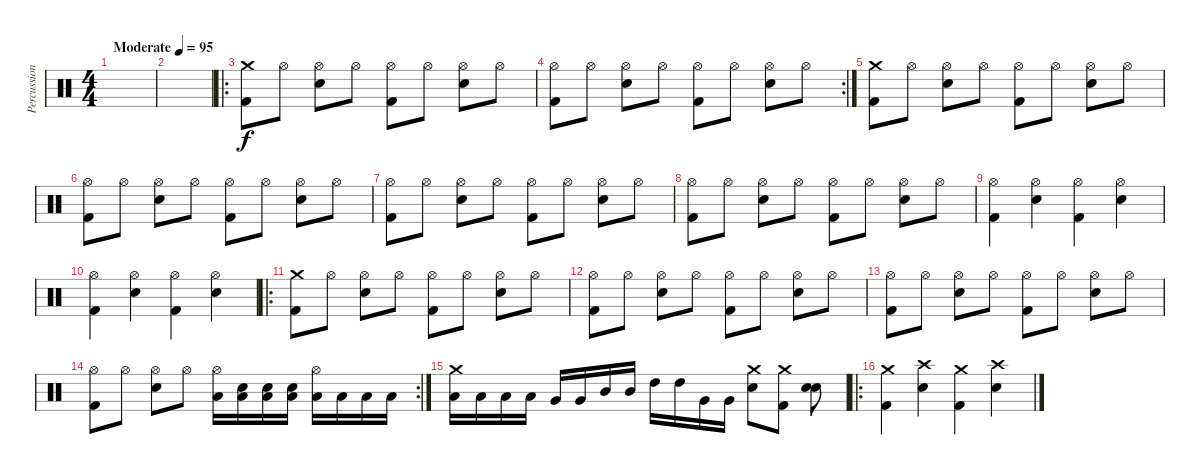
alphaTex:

\track ("Percussion" "Percussion") {instrument percussion}
\staff {score}
\articulation defaults
\ts (4 4)
\tempo (95 "Moderate")
\clef neutral
\ks c
|
|
\ro
("Crash medium (hit)" "Kick (hit) 2").8 "Hi-Hat (open)".8 ("Hi-Hat (open)" "Electric Snare (hit)").8 "Hi-Hat (open)".8 ("Hi-Hat (open)" "Kick (hit) 2").8 "Hi-Hat (open)".8 ("Hi-Hat (open)" "Electric Snare (hit)").8 "Hi-Hat (open)".8 |
\rc 2
("Hi-Hat (open)" "Kick (hit) 2").8 "Hi-Hat (open)".8 ("Hi-Hat (open)" "Electric Snare (hit)").8 "Hi-Hat (open)".8 ("Hi-Hat (open)" "Kick (hit) 2").8 "Hi-Hat (open)".8 ("Hi-Hat (open)" "Electric Snare (hit)").8 "Hi-Hat (open)".8 |
("Crash medium (hit)" "Kick (hit) 2").8 "Hi-Hat (open)".8 ("Hi-Hat (open)" "Electric Snare (hit)").8 "Hi-Hat (open)".8 ("Hi-Hat (open)" "Kick (hit) 2").8 "Hi-Hat (open)".8 ("Hi-Hat (open)" "Electric Snare (hit)").8 "Hi-Hat (open)".8 |
("Hi-Hat (open)" "Kick (hit) 2").8 "Hi-Hat (open)".8 ("Hi-Hat (open)" "Electric Snare (hit)").8 "Hi-Hat (open)".8 ("Hi-Hat (open)" "Kick (hit) 2").8 "Hi-Hat (open)".8 ("Hi-Hat (open)" "Electric Snare (hit)").8 "Hi-Hat (open)".8 |
("Hi-Hat (open)" "Kick (hit) 2").8 "Hi-Hat (open)".8 ("Hi-Hat (open)" "Electric Snare (hit)").8 "Hi-Hat (open)".8 ("Hi-Hat (open)" "Kick (hit) 2").8 "Hi-Hat (open)".8 ("Hi-Hat (open)" "Electric Snare (hit)").8 "Hi-Hat (open)".8 |
("Hi-Hat (open)" "Kick (hit) 2").8 "Hi-Hat (open)".8 ("Hi-Hat (open)" "Electric Snare (hit)").8 "Hi-Hat (open)".8 ("Hi-Hat (open)" "Kick (hit) 2").8 "Hi-Hat (open)".8 ("Hi-Hat (open)" "Electric Snare (hit)").8 "Hi-Hat (open)".8 |
("Hi-Hat (open)" "Kick (hit) 2").4 ("Hi-Hat (open)" "Electric Snare (hit)").4 ("Hi-Hat (open)" "Kick (hit) 2").4 ("Hi-Hat (open)" "Electric Snare (hit)").4 |
("Hi-Hat (open)" "Kick (hit) 2").4 ("Hi-Hat (open)" "Electric Snare (hit)").4 ("Hi-Hat (open)" "Kick (hit) 2").4 ("Hi-Hat (open)" "Electric Snare (hit)").4 |
\ro
("Crash medium (hit)" "Kick (hit) 2").8 "Hi-Hat (open)".8 ("Hi-Hat (open)" "Electric Snare (hit)").8 "Hi-Hat (open)".8 ("Hi-Hat (open)" "Kick (hit) 2").8 "Hi-Hat (open)".8 ("Hi-Hat (open)" "Electric Snare (hit)").8 "Hi-Hat (open)".8 |
("Hi-Hat (open)" "Kick (hit) 2").8 "Hi-Hat (open)".8 ("Hi-Hat (open)" "Electric Snare (hit)").8 "Hi-Hat (open)".8 ("Hi-Hat (open)" "Kick (hit) 2").8 "Hi-Hat (open)".8 ("Hi-Hat (open)" "Electric Snare (hit)").8 "Hi-Hat (open)".8 |
("Hi-Hat (open)" "Kick (hit) 2").8 "Hi-Hat (open)".8 ("Hi-Hat (open)" "Electric Snare (hit)").8 "Hi-Hat (open)".8 ("Hi-Hat (open)" "Kick (hit) 2").8 "Hi-Hat (open)".8 ("Hi-Hat (open)" "Electric Snare (hit)").8 "Hi-Hat (open)".8 |
\rc 2
("Hi-Hat (open)" "Kick (hit) 2").8 "Hi-Hat (open)".8 ("Hi-Hat (open)" "Electric Snare (hit)").8 "Hi-Hat (open)".8 ("Hi-Hat (open)" "Low Tom (hit)").16 ("Snare (hit)" "Low Tom (hit)").16 ("Snare (hit)" "Low Tom (hit)").16 ("Snare (hit)" "Low Tom (hit)").16 ("Hi-Hat (open)" "Low Floor Tom (hit)").16 "Low Floor Tom (hit)".16 "Low Floor Tom (hit)".16 "Low Floor Tom (hit)".16 |
("Crash medium (hit)" "Low Tom (hit)").16 "Low Tom (hit)".16 "Low Floor Tom (hit)".16 "Low Floor Tom (hit)".16 "Very Low Tom (hit)".16 "Very Low Tom (hit)".16 "Mid Tom (hit)".16 "Mid Tom (hit)".16 "High Tom (hit)".16 "High Tom (hit)".16 "Very Low Tom (hit)".16 "Very Low Tom (hit)".16 ("Crash medium (hit)" "Electric Snare (hit)").8 ("Crash medium (hit)" "Kick (hit) 2").8 ("Snare (hit)" "Snare (hit)").8 |
\ro
("Crash medium (hit)" "Kick (hit) 2").4 ("Crash high (hit)" "Electric Snare (hit)").4 ("Crash medium (hit)" "Kick (hit) 2").4 ("Crash high (hit)" "Electric Snare (hit)").4
